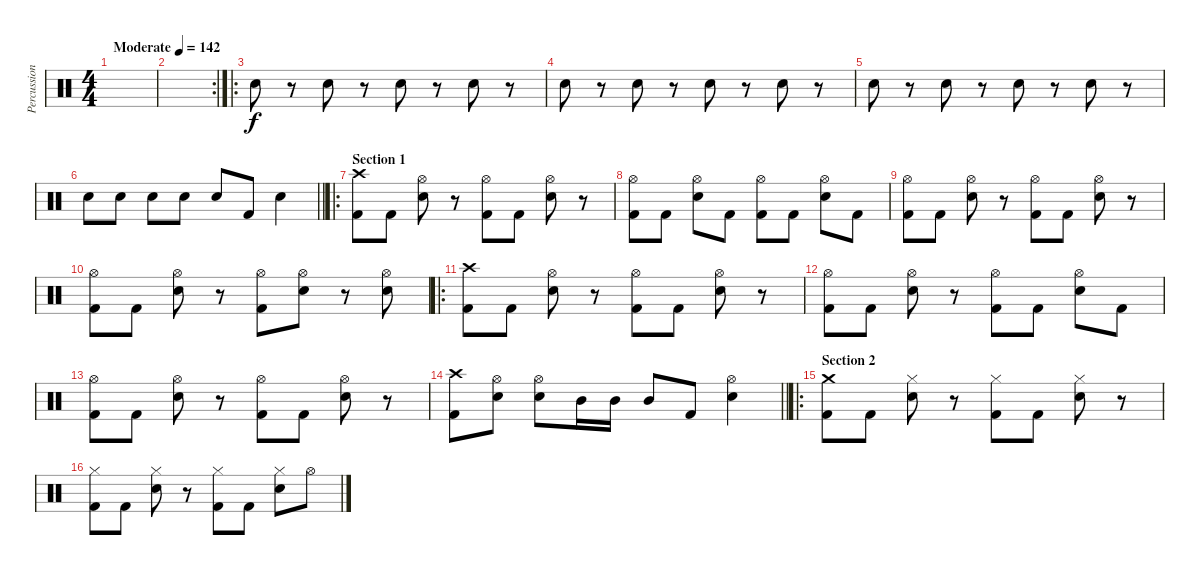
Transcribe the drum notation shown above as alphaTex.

\track ("Percussion" "Percussion") {instrument percussion}
\staff {score}
\articulation defaults
\ts (4 4)
\tempo (142 "Moderate")
\clef neutral
\ks c
|
\rc 2
|
\ro "Electric Snare (hit)".8
r.8 "Electric Snare (hit)".8 r.8 "Electric Snare (hit)".8 r.8 "Electric Snare (hit)".8 r.8 |
"Electric Snare (hit)".8 r.8 "Electric Snare (hit)".8 r.8 "Electric Snare (hit)".8 r.8 "Electric Snare (hit)".8 r.8 |
"Electric Snare (hit)".8 r.8 "Electric Snare (hit)".8 r.8 "Electric Snare (hit)".8 r.8 "Electric Snare (hit)".8 r.8 |
\barLineRight lightlight "Electric Snare (hit)".8 "Electric Snare (hit)".8 "Electric Snare (hit)".8 "Electric Snare (hit)".8 "Electric Snare (hit)".8 "Kick (hit) 2".8 "Electric Snare (hit)".4
|
\ro
\section ("" "Section 1")
("Crash high (hit)" "Kick (hit) 2").8 "Kick (hit) 2".8 ("Hi-Hat (open)" "Electric Snare (hit)").8 r.8 ("Hi-Hat (open)" "Kick (hit) 2").8 "Kick (hit) 2".8 ("Hi-Hat (open)" "Electric Snare (hit)").8 r.8 |
("Hi-Hat (open)" "Kick (hit) 2").8 "Kick (hit) 2".8 ("Hi-Hat (open)" "Electric Snare (hit)").8 "Kick (hit) 2".8 ("Hi-Hat (open)" "Kick (hit) 2").8 "Kick (hit) 2".8 ("Hi-Hat (open)" "Electric Snare (hit)").8 "Kick (hit) 2".8 |
("Hi-Hat (open)" "Kick (hit) 2").8 "Kick (hit) 2".8 ("Hi-Hat (open)" "Electric Snare (hit)").8 r.8 ("Hi-Hat (open)" "Kick (hit) 2").8 "Kick (hit) 2".8 ("Hi-Hat (open)" "Electric Snare (hit)").8 r.8 |
("Hi-Hat (open)" "Kick (hit) 2").8 "Kick (hit) 2".8 ("Hi-Hat (open)" "Electric Snare (hit)").8 r.8 ("Hi-Hat (open)" "Kick (hit) 2").8 ("Hi-Hat (open)" "Electric Snare (hit)").8 r.8 ("Hi-Hat (open)" "Electric Snare (hit)").8 |
\ro
("Crash high (hit)" "Kick (hit) 2").8 "Kick (hit) 2".8 ("Hi-Hat (open)" "Electric Snare (hit)").8 r.8 ("Hi-Hat (open)" "Kick (hit) 2").8 "Kick (hit) 2".8 ("Hi-Hat (open)" "Electric Snare (hit)").8 r.8 |
("Hi-Hat (open)" "Kick (hit) 2").8 "Kick (hit) 2".8 ("Hi-Hat (open)" "Electric Snare (hit)").8 r.8 ("Hi-Hat (open)" "Kick (hit) 2").8 "Kick (hit) 2".8 ("Hi-Hat (open)" "Electric Snare (hit)").8 "Kick (hit) 2".8 |
("Hi-Hat (open)" "Kick (hit) 2").8 "Kick (hit) 2".8 ("Hi-Hat (open)" "Electric Snare (hit)").8 r.8 ("Hi-Hat (open)" "Kick (hit) 2").8 "Kick (hit) 2".8 ("Hi-Hat (open)" "Electric Snare (hit)").8 r.8 |
\barLineRight lightlight
("Crash high (hit)" "Kick (hit) 2").8 ("Hi-Hat (open)" "Electric Snare (hit)").8 ("Hi-Hat (open)" "Electric Snare (hit)").8 "Mid Tom (hit)".16 "Mid Tom (hit)".16 "Mid Tom (hit)".8 "Kick (hit) 2".8 ("Hi-Hat (open)" "Electric Snare (hit)").4 |
\ro
\section ("" "Section 2")
("Crash medium (hit)" "Kick (hit) 2").8 "Kick (hit) 2".8 ("Hi-Hat (closed)" "Electric Snare (hit)").8 r.8 ("Hi-Hat (closed)" "Kick (hit) 2").8 "Kick (hit) 2".8 ("Hi-Hat (closed)" "Electric Snare (hit)").8 r.8 |
("Hi-Hat (closed)" "Kick (hit) 2").8 "Kick (hit) 2".8 ("Hi-Hat (closed)" "Electric Snare (hit)").8 r.8 ("Hi-Hat (closed)" "Kick (hit) 2").8 "Kick (hit) 2".8 ("Hi-Hat (closed)" "Electric Snare (hit)").8 "Hi-Hat (open)".8
